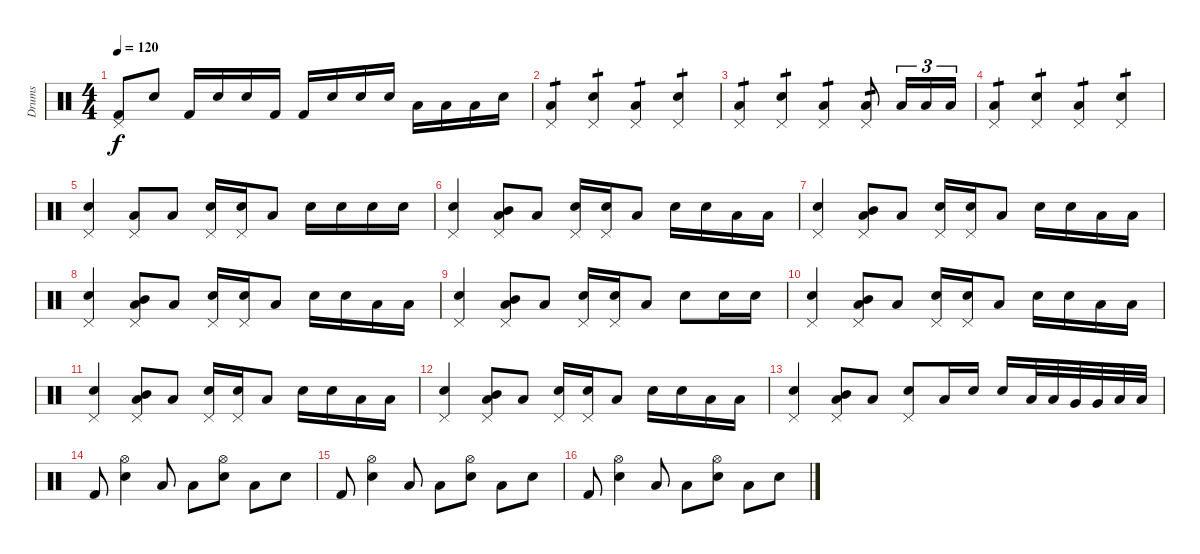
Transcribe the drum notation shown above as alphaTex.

\track ("Drums" "Drums") {instrument percussion}
\staff
\articulation defaults
\ts (4 4)
\tempo 120
\clef neutral
\ks c
("Pedal Hi-Hat (hit)" "Kick (hit) 2").8{dy f} "Electric Snare (hit)".8 "Kick (hit) 2".16 "Electric Snare (hit)".16 "Electric Snare (hit)".16 "Kick (hit) 2".16 "Kick (hit) 2".16 "Electric Snare (hit)".16 "Electric Snare (hit)".16 "Electric Snare (hit)".16 "Low Floor Tom (hit)".16 "Low Floor Tom (hit)".16 "Low Floor Tom (hit)".16 "Electric Snare (hit)".16 |
("Pedal Hi-Hat (hit)" "Low Floor Tom (hit)").4{tp 1} ("Pedal Hi-Hat (hit)" "Electric Snare (hit)").4{tp 1} ("Pedal Hi-Hat (hit)" "Low Floor Tom (hit)").4{tp 1} ("Pedal Hi-Hat (hit)" "Electric Snare (hit)").4{tp 1} |
("Pedal Hi-Hat (hit)" "Low Floor Tom (hit)").4{tp 1} ("Pedal Hi-Hat (hit)" "Electric Snare (hit)").4{tp 1} ("Pedal Hi-Hat (hit)" "Low Floor Tom (hit)").4{tp 1} ("Pedal Hi-Hat (hit)" "Low Floor Tom (hit)").8{tp 1} "Low Floor Tom (hit)".16{tu (3 2)} "Low Floor Tom (hit)".16{tu (3 2)} "Low Floor Tom (hit)".16{tu (3 2)} |
("Pedal Hi-Hat (hit)" "Low Floor Tom (hit)").4{tp 1} ("Pedal Hi-Hat (hit)" "Electric Snare (hit)").4{tp 1} ("Pedal Hi-Hat (hit)" "Low Floor Tom (hit)").4{tp 1} ("Pedal Hi-Hat (hit)" "Electric Snare (hit)").4{tp 1} |
("Pedal Hi-Hat (hit)" "Electric Snare (hit)").4 ("Pedal Hi-Hat (hit)" "Low Floor Tom (hit)").8 "Low Floor Tom (hit)".8 ("Pedal Hi-Hat (hit)" "Electric Snare (hit)").16 ("Pedal Hi-Hat (hit)" "Electric Snare (hit)").16 "Low Floor Tom (hit)".8 "Electric Snare (hit)".16 "Electric Snare (hit)".16 "Electric Snare (hit)".16 "Electric Snare (hit)".16 |
("Pedal Hi-Hat (hit)" "Electric Snare (hit)").4 ("Pedal Hi-Hat (hit)" "Mid Tom (hit)" "Low Floor Tom (hit)").8 "Low Floor Tom (hit)".8 ("Pedal Hi-Hat (hit)" "Electric Snare (hit)").16 ("Pedal Hi-Hat (hit)" "Electric Snare (hit)").16 "Low Floor Tom (hit)".8 "Electric Snare (hit)".16 "Electric Snare (hit)".16 "Low Floor Tom (hit)".16 "Low Floor Tom (hit)".16 |
("Pedal Hi-Hat (hit)" "Electric Snare (hit)").4 ("Pedal Hi-Hat (hit)" "Mid Tom (hit)" "Low Floor Tom (hit)").8 "Low Floor Tom (hit)".8 ("Pedal Hi-Hat (hit)" "Electric Snare (hit)").16 ("Pedal Hi-Hat (hit)" "Electric Snare (hit)").16 "Low Floor Tom (hit)".8 "Electric Snare (hit)".16 "Electric Snare (hit)".16 "Low Floor Tom (hit)".16 "Low Floor Tom (hit)".16 |
("Pedal Hi-Hat (hit)" "Electric Snare (hit)").4 ("Pedal Hi-Hat (hit)" "Mid Tom (hit)" "Low Floor Tom (hit)").8 "Low Floor Tom (hit)".8 ("Pedal Hi-Hat (hit)" "Electric Snare (hit)").16 ("Pedal Hi-Hat (hit)" "Electric Snare (hit)").16 "Low Floor Tom (hit)".8 "Electric Snare (hit)".16 "Electric Snare (hit)".16 "Low Floor Tom (hit)".16 "Low Floor Tom (hit)".16 |
("Pedal Hi-Hat (hit)" "Electric Snare (hit)").4 ("Pedal Hi-Hat (hit)" "Mid Tom (hit)" "Low Floor Tom (hit)").8 "Low Floor Tom (hit)".8 ("Pedal Hi-Hat (hit)" "Electric Snare (hit)").16 ("Pedal Hi-Hat (hit)" "Electric Snare (hit)").16 "Low Floor Tom (hit)".8 "Electric Snare (hit)".8 "Electric Snare (hit)".16 "Electric Snare (hit)".16 |
("Pedal Hi-Hat (hit)" "Electric Snare (hit)").4 ("Pedal Hi-Hat (hit)" "Mid Tom (hit)" "Low Floor Tom (hit)").8 "Low Floor Tom (hit)".8 ("Pedal Hi-Hat (hit)" "Electric Snare (hit)").16 ("Pedal Hi-Hat (hit)" "Electric Snare (hit)").16 "Low Floor Tom (hit)".8 "Electric Snare (hit)".16 "Electric Snare (hit)".16 "Low Floor Tom (hit)".16 "Low Floor Tom (hit)".16 |
("Pedal Hi-Hat (hit)" "Electric Snare (hit)").4 ("Pedal Hi-Hat (hit)" "Mid Tom (hit)" "Low Floor Tom (hit)").8 "Low Floor Tom (hit)".8 ("Pedal Hi-Hat (hit)" "Electric Snare (hit)").16 ("Pedal Hi-Hat (hit)" "Electric Snare (hit)").16 "Low Floor Tom (hit)".8 "Electric Snare (hit)".16 "Electric Snare (hit)".16 "Low Floor Tom (hit)".16 "Low Floor Tom (hit)".16 |
("Pedal Hi-Hat (hit)" "Electric Snare (hit)").4 ("Pedal Hi-Hat (hit)" "Mid Tom (hit)" "Low Floor Tom (hit)").8 "Low Floor Tom (hit)".8 ("Pedal Hi-Hat (hit)" "Electric Snare (hit)").16 ("Pedal Hi-Hat (hit)" "Electric Snare (hit)").16 "Low Floor Tom (hit)".8 "Electric Snare (hit)".16 "Electric Snare (hit)".16 "Low Floor Tom (hit)".16 "Low Floor Tom (hit)".16 |
("Pedal Hi-Hat (hit)" "Electric Snare (hit)").4 ("Pedal Hi-Hat (hit)" "Mid Tom (hit)" "Low Floor Tom (hit)").8 "Low Floor Tom (hit)".8 ("Pedal Hi-Hat (hit)" "Electric Snare (hit)").8 "Low Floor Tom (hit)".16 "Electric Snare (hit)".16 "Electric Snare (hit)".16 "Low Tom (hit)".32 "Low Tom (hit)".32 "Very Low Tom (hit)".32 "Very Low Tom (hit)".32 "Low Floor Tom (hit)".32 "Low Floor Tom (hit)".32 |
"Kick (hit) 2".8 ("Hi-Hat (open)" "Electric Snare (hit)").4 "Low Floor Tom (hit)".8 "Low Floor Tom (hit)".8 ("Hi-Hat (open)" "Electric Snare (hit)").8 "Low Floor Tom (hit)".8 "Electric Snare (hit)".8 |
"Kick (hit) 2".8 ("Hi-Hat (open)" "Electric Snare (hit)").4 "Low Floor Tom (hit)".8 "Low Floor Tom (hit)".8 ("Hi-Hat (open)" "Electric Snare (hit)").8 "Low Floor Tom (hit)".8 "Electric Snare (hit)".8 |
"Kick (hit) 2".8 ("Hi-Hat (open)" "Electric Snare (hit)").4 "Low Floor Tom (hit)".8 "Low Floor Tom (hit)".8 ("Hi-Hat (open)" "Electric Snare (hit)").8 "Low Floor Tom (hit)".8 "Electric Snare (hit)".8
